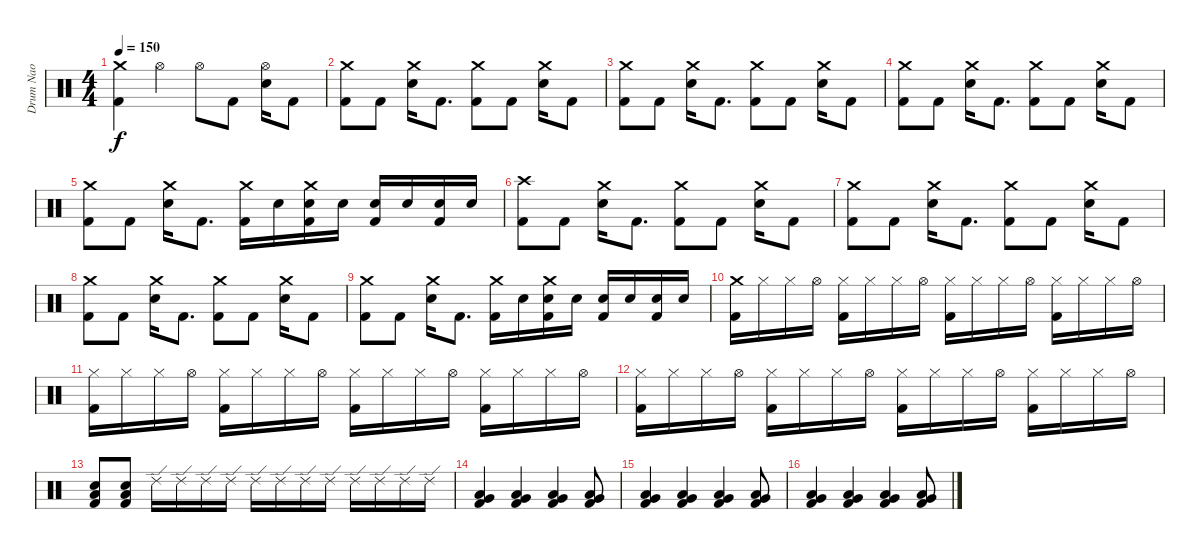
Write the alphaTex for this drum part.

\track ("Drum Nao" "Drum Nao") {instrument percussion}
\staff {score}
\articulation defaults
\ts (4 4)
\tempo 150
\clef neutral
\ks c
("Crash medium (hit)" "Kick (hit) 2").4{dy f} "Hi-Hat (open)".4 "Hi-Hat (open)".8 "Kick (hit) 2".8 ("Electric Snare (hit)" "Hi-Hat (open)").16 "Kick (hit) 2".8 |
("Crash medium (hit)" "Kick (hit) 2").8 "Kick (hit) 2".8 ("Crash medium (hit)" "Electric Snare (hit)").16 "Kick (hit) 2".8{d} ("Crash medium (hit)" "Kick (hit) 2").8 "Kick (hit) 2".8 ("Crash medium (hit)" "Electric Snare (hit)").16 "Kick (hit) 2".8 |
("Crash medium (hit)" "Kick (hit) 2").8 "Kick (hit) 2".8 ("Crash medium (hit)" "Electric Snare (hit)").16 "Kick (hit) 2".8{d} ("Crash medium (hit)" "Kick (hit) 2").8 "Kick (hit) 2".8 ("Crash medium (hit)" "Electric Snare (hit)").16 "Kick (hit) 2".8 |
("Crash medium (hit)" "Kick (hit) 2").8 "Kick (hit) 2".8 ("Crash medium (hit)" "Electric Snare (hit)").16 "Kick (hit) 2".8{d} ("Crash medium (hit)" "Kick (hit) 2").8 "Kick (hit) 2".8 ("Crash medium (hit)" "Electric Snare (hit)").16 "Kick (hit) 2".8 |
("Crash medium (hit)" "Kick (hit) 2").8 "Kick (hit) 2".8 ("Crash medium (hit)" "Electric Snare (hit)").16 "Kick (hit) 2".8{d} ("Crash medium (hit)" "Kick (hit) 2").16 "Electric Snare (hit)".16 ("Crash medium (hit)" "Electric Snare (hit)" "Kick (hit) 2").16 "Electric Snare (hit)".16 ("Electric Snare (hit)" "Kick (hit) 2").16 "Electric Snare (hit)".16 ("Electric Snare (hit)" "Kick (hit) 2").16 "Electric Snare (hit)".16 |
("Crash high (hit)" "Kick (hit) 2").8 "Kick (hit) 2".8 ("Crash medium (hit)" "Electric Snare (hit)").16 "Kick (hit) 2".8{d} ("Crash medium (hit)" "Kick (hit) 2").8 "Kick (hit) 2".8 ("Crash medium (hit)" "Electric Snare (hit)").16 "Kick (hit) 2".8 |
("Crash medium (hit)" "Kick (hit) 2").8 "Kick (hit) 2".8 ("Crash medium (hit)" "Electric Snare (hit)").16 "Kick (hit) 2".8{d} ("Crash medium (hit)" "Kick (hit) 2").8 "Kick (hit) 2".8 ("Crash medium (hit)" "Electric Snare (hit)").16 "Kick (hit) 2".8 |
("Crash medium (hit)" "Kick (hit) 2").8 "Kick (hit) 2".8 ("Crash medium (hit)" "Electric Snare (hit)").16 "Kick (hit) 2".8{d} ("Crash medium (hit)" "Kick (hit) 2").8 "Kick (hit) 2".8 ("Crash medium (hit)" "Electric Snare (hit)").16 "Kick (hit) 2".8 |
("Crash medium (hit)" "Kick (hit) 2").8 "Kick (hit) 2".8 ("Crash medium (hit)" "Electric Snare (hit)").16 "Kick (hit) 2".8{d} ("Crash medium (hit)" "Kick (hit) 2").16 "Electric Snare (hit)".16 ("Crash medium (hit)" "Electric Snare (hit)" "Kick (hit) 2").16 "Electric Snare (hit)".16 ("Electric Snare (hit)" "Kick (hit) 2").16 "Electric Snare (hit)".16 ("Electric Snare (hit)" "Kick (hit) 2").16 "Electric Snare (hit)".16 |
("Crash medium (hit)" "Kick (hit) 2").16 "Hi-Hat (closed)".16 "Hi-Hat (closed)".16 "Hi-Hat (open)".16 ("Hi-Hat (closed)" "Kick (hit) 2").16 "Hi-Hat (closed)".16 "Hi-Hat (closed)".16 "Hi-Hat (open)".16 ("Hi-Hat (closed)" "Kick (hit) 2").16 "Hi-Hat (closed)".16 "Hi-Hat (closed)".16 "Hi-Hat (open)".16 ("Hi-Hat (closed)" "Kick (hit) 2").16 "Hi-Hat (closed)".16 "Hi-Hat (closed)".16 "Hi-Hat (open)".16 |
("Hi-Hat (closed)" "Kick (hit) 2").16 "Hi-Hat (closed)".16 "Hi-Hat (closed)".16 "Hi-Hat (open)".16 ("Hi-Hat (closed)" "Kick (hit) 2").16 "Hi-Hat (closed)".16 "Hi-Hat (closed)".16 "Hi-Hat (open)".16 ("Hi-Hat (closed)" "Kick (hit) 2").16 "Hi-Hat (closed)".16 "Hi-Hat (closed)".16 "Hi-Hat (open)".16 ("Hi-Hat (closed)" "Kick (hit) 2").16 "Hi-Hat (closed)".16 "Hi-Hat (closed)".16 "Hi-Hat (open)".16 |
("Hi-Hat (closed)" "Kick (hit) 2").16 "Hi-Hat (closed)".16 "Hi-Hat (closed)".16 "Hi-Hat (open)".16 ("Hi-Hat (closed)" "Kick (hit) 2").16 "Hi-Hat (closed)".16 "Hi-Hat (closed)".16 "Hi-Hat (open)".16 ("Hi-Hat (closed)" "Kick (hit) 2").16 "Hi-Hat (closed)".16 "Hi-Hat (closed)".16 "Hi-Hat (open)".16 ("Hi-Hat (closed)" "Kick (hit) 2").16 "Hi-Hat (closed)".16 "Hi-Hat (closed)".16 "Hi-Hat (open)".16 |
("Low Tom (hit)" "Electric Snare (hit)" "Kick (hit) 2").8 ("Low Tom (hit)" "Electric Snare (hit)" "Kick (hit) 2").8 "Ride (edge) 2".16 "Ride (edge) 2".16 "Ride (edge) 2".16 "Ride (edge) 2".16 "Ride (edge) 2".16 "Ride (edge) 2".16 "Ride (edge) 2".16 "Ride (edge) 2".16 "Ride (edge) 2".16 "Ride (edge) 2".16 "Ride (edge) 2".16 "Ride (edge) 2".16 |
("Very Low Tom (hit)" "Low Tom (hit)" "Kick (hit) 2").4 ("Very Low Tom (hit)" "Low Tom (hit)" "Kick (hit) 2").4 ("Very Low Tom (hit)" "Low Tom (hit)" "Kick (hit) 2").4 ("Very Low Tom (hit)" "Low Tom (hit)" "Kick (hit) 2").8 |
("Very Low Tom (hit)" "Low Tom (hit)" "Kick (hit) 2").4 ("Very Low Tom (hit)" "Low Tom (hit)" "Kick (hit) 2").4 ("Very Low Tom (hit)" "Low Tom (hit)" "Kick (hit) 2").4 ("Very Low Tom (hit)" "Low Tom (hit)" "Kick (hit) 2").8 |
("Very Low Tom (hit)" "Low Tom (hit)" "Kick (hit) 2").4 ("Very Low Tom (hit)" "Low Tom (hit)" "Kick (hit) 2").4 ("Very Low Tom (hit)" "Low Tom (hit)" "Kick (hit) 2").4 ("Very Low Tom (hit)" "Low Tom (hit)" "Kick (hit) 2").8
